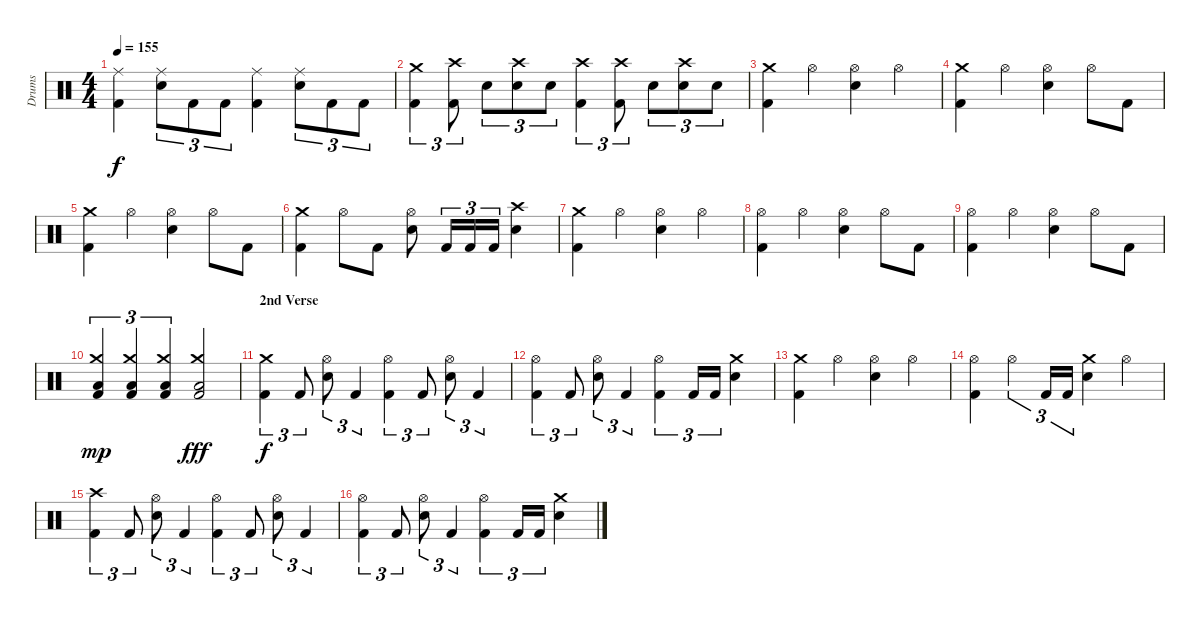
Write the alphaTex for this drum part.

\track ("Drums" "Drums") {instrument percussion}
\staff {score}
\articulation defaults
\ts (4 4)
\tempo 155
\clef neutral
\ks c
("Kick (hit) 2" "Ride (middle)").4{dy f} ("Electric Snare (hit)" "Ride (middle)").8{tu (3 2)} "Kick (hit) 2".8{tu (3 2)} "Kick (hit) 2".8{tu (3 2)} ("Kick (hit) 2" "Ride (middle)").4 ("Electric Snare (hit)" "Ride (middle)").8{tu (3 2)} "Kick (hit) 2".8{tu (3 2)} "Kick (hit) 2".8{tu (3 2)} |
("Kick (hit) 2" "Crash medium (hit)").4{tu (3 2)} ("Kick (hit) 2" "Crash high (hit)").8{tu (3 2)} "Electric Snare (hit)".8{tu (3 2)} ("Electric Snare (hit)" "Crash high (hit)").8{tu (3 2)} "Electric Snare (hit)".8{tu (3 2)} ("Kick (hit) 2" "Crash high (hit)").4{tu (3 2)} ("Kick (hit) 2" "Crash high (hit)").8{tu (3 2)} "Electric Snare (hit)".8{tu (3 2)} ("Electric Snare (hit)" "Crash high (hit)").8{tu (3 2)} "Electric Snare (hit)".8{tu (3 2)} |
("Kick (hit) 2" "Crash medium (hit)").4 "Hi-Hat (open)".4 ("Electric Snare (hit)" "Hi-Hat (open)").4 "Hi-Hat (open)".4 |
("Kick (hit) 2" "Crash medium (hit)").4 "Hi-Hat (open)".4 ("Electric Snare (hit)" "Hi-Hat (open)").4 "Hi-Hat (open)".8 "Kick (hit) 2".8 |
("Kick (hit) 2" "Crash medium (hit)").4 "Hi-Hat (open)".4 ("Electric Snare (hit)" "Hi-Hat (open)").4 "Hi-Hat (open)".8 "Kick (hit) 2".8 |
("Kick (hit) 2" "Crash medium (hit)").4 "Hi-Hat (open)".8 "Kick (hit) 2".8 ("Electric Snare (hit)" "Hi-Hat (open)").8 "Kick (hit) 2".16{tu (3 2)} "Kick (hit) 2".16{tu (3 2)} "Kick (hit) 2".16{tu (3 2)} ("Electric Snare (hit)" "Crash high (hit)").4 |
("Kick (hit) 2" "Crash medium (hit)").4 "Hi-Hat (open)".4 ("Electric Snare (hit)" "Hi-Hat (open)").4 "Hi-Hat (open)".4 |
("Kick (hit) 2" "Hi-Hat (open)").4 "Hi-Hat (open)".4 ("Electric Snare (hit)" "Hi-Hat (open)").4 "Hi-Hat (open)".8 "Kick (hit) 2".8 |
("Kick (hit) 2" "Hi-Hat (open)").4 "Hi-Hat (open)".4 ("Electric Snare (hit)" "Hi-Hat (open)").4 "Hi-Hat (open)".8 "Kick (hit) 2".8 |
("Kick (hit) 2" "Low Tom (hit)" "Crash medium (hit)").4{tu (3 2) dy mp} ("Kick (hit) 2" "Low Tom (hit)" "Crash medium (hit)").4{tu (3 2)} ("Kick (hit) 2" "Low Tom (hit)" "Crash medium (hit)").4{tu (3 2)} ("Kick (hit) 2" "Low Tom (hit)" "Crash medium (hit)").2{dy fff} |
\section ("" "2nd Verse")
("Kick (hit) 2" "Crash medium (hit)").4{tu (3 2) dy f} "Kick (hit) 2".8{tu (3 2)} ("Electric Snare (hit)" "Hi-Hat (open)").8{tu (3 2)} "Kick (hit) 2".4{tu (3 2)} ("Kick (hit) 2" "Hi-Hat (open)").4{tu (3 2)} "Kick (hit) 2".8{tu (3 2)} ("Electric Snare (hit)" "Hi-Hat (open)").8{tu (3 2)} "Kick (hit) 2".4{tu (3 2)} |
("Kick (hit) 2" "Hi-Hat (open)").4{tu (3 2)} "Kick (hit) 2".8{tu (3 2)} ("Electric Snare (hit)" "Hi-Hat (open)").8{tu (3 2)} "Kick (hit) 2".4{tu (3 2)} ("Kick (hit) 2" "Hi-Hat (open)").4{tu (3 2)} "Kick (hit) 2".16{tu (3 2)} "Kick (hit) 2".16{tu (3 2)} ("Electric Snare (hit)" "Crash medium (hit)").4 |
("Kick (hit) 2" "Crash medium (hit)").4 "Hi-Hat (open)".4 ("Electric Snare (hit)" "Hi-Hat (open)").4 "Hi-Hat (open)".4 |
("Kick (hit) 2" "Hi-Hat (open)").4 "Hi-Hat (open)".4{tu (3 2)} "Kick (hit) 2".16{tu (3 2)} "Kick (hit) 2".16{tu (3 2)} ("Electric Snare (hit)" "Crash medium (hit)").4 "Hi-Hat (open)".4 |
("Kick (hit) 2" "Crash high (hit)").4{tu (3 2)} "Kick (hit) 2".8{tu (3 2)} ("Electric Snare (hit)" "Hi-Hat (open)").8{tu (3 2)} "Kick (hit) 2".4{tu (3 2)} ("Kick (hit) 2" "Hi-Hat (open)").4{tu (3 2)} "Kick (hit) 2".8{tu (3 2)} ("Electric Snare (hit)" "Hi-Hat (open)").8{tu (3 2)} "Kick (hit) 2".4{tu (3 2)} |
("Kick (hit) 2" "Hi-Hat (open)").4{tu (3 2)} "Kick (hit) 2".8{tu (3 2)} ("Electric Snare (hit)" "Hi-Hat (open)").8{tu (3 2)} "Kick (hit) 2".4{tu (3 2)} ("Kick (hit) 2" "Hi-Hat (open)").4{tu (3 2)} "Kick (hit) 2".16{tu (3 2)} "Kick (hit) 2".16{tu (3 2)} ("Electric Snare (hit)" "Crash medium (hit)").4
